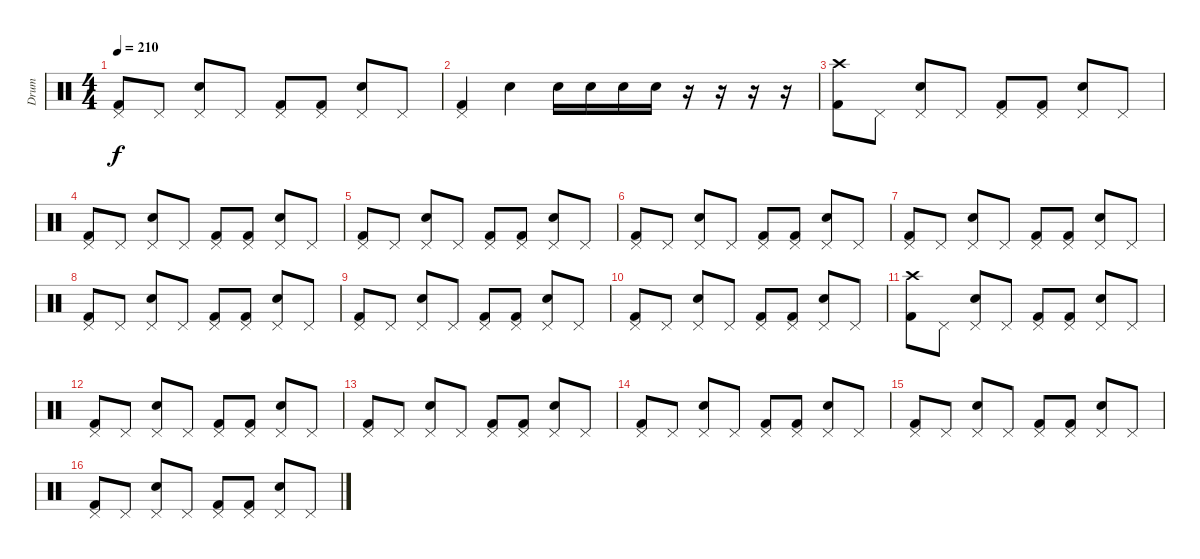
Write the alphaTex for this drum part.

\track ("Drum" "Drum") {instrument percussion}
\staff {score}
\articulation defaults
\ts (4 4)
\tempo 210
\clef neutral
\ks c
("Pedal Hi-Hat (hit)" "Kick (hit) 2").8{dy f} "Pedal Hi-Hat (hit)".8 ("Pedal Hi-Hat (hit)" "Snare (hit) 2").8 "Pedal Hi-Hat (hit)".8 ("Pedal Hi-Hat (hit)" "Kick (hit) 2").8 ("Pedal Hi-Hat (hit)" "Kick (hit) 2").8 ("Pedal Hi-Hat (hit)" "Snare (hit) 2").8 "Pedal Hi-Hat (hit)".8 |
("Pedal Hi-Hat (hit)" "Kick (hit) 2").4 "Snare (hit) 2".4 "Snare (hit) 2".16 "Snare (hit) 2".16 "Snare (hit) 2".16 "Snare (hit) 2".16 r.16 r.16 r.16 r.16 |
("Crash high (hit)" "Kick (hit) 2").8 "Pedal Hi-Hat (hit)".8 ("Pedal Hi-Hat (hit)" "Snare (hit) 2").8 "Pedal Hi-Hat (hit)".8 ("Pedal Hi-Hat (hit)" "Kick (hit) 2").8 ("Pedal Hi-Hat (hit)" "Kick (hit) 2").8 ("Pedal Hi-Hat (hit)" "Snare (hit) 2").8 "Pedal Hi-Hat (hit)".8 |
("Pedal Hi-Hat (hit)" "Kick (hit) 2").8 "Pedal Hi-Hat (hit)".8 ("Pedal Hi-Hat (hit)" "Snare (hit) 2").8 "Pedal Hi-Hat (hit)".8 ("Pedal Hi-Hat (hit)" "Kick (hit) 2").8 ("Pedal Hi-Hat (hit)" "Kick (hit) 2").8 ("Pedal Hi-Hat (hit)" "Snare (hit) 2").8 "Pedal Hi-Hat (hit)".8 |
("Pedal Hi-Hat (hit)" "Kick (hit) 2").8 "Pedal Hi-Hat (hit)".8 ("Pedal Hi-Hat (hit)" "Snare (hit) 2").8 "Pedal Hi-Hat (hit)".8 ("Pedal Hi-Hat (hit)" "Kick (hit) 2").8 ("Pedal Hi-Hat (hit)" "Kick (hit) 2").8 ("Pedal Hi-Hat (hit)" "Snare (hit) 2").8 "Pedal Hi-Hat (hit)".8 |
("Pedal Hi-Hat (hit)" "Kick (hit) 2").8 "Pedal Hi-Hat (hit)".8 ("Pedal Hi-Hat (hit)" "Snare (hit) 2").8 "Pedal Hi-Hat (hit)".8 ("Pedal Hi-Hat (hit)" "Kick (hit) 2").8 ("Pedal Hi-Hat (hit)" "Kick (hit) 2").8 ("Pedal Hi-Hat (hit)" "Snare (hit) 2").8 "Pedal Hi-Hat (hit)".8 |
("Pedal Hi-Hat (hit)" "Kick (hit) 2").8 "Pedal Hi-Hat (hit)".8 ("Pedal Hi-Hat (hit)" "Snare (hit) 2").8 "Pedal Hi-Hat (hit)".8 ("Pedal Hi-Hat (hit)" "Kick (hit) 2").8 ("Pedal Hi-Hat (hit)" "Kick (hit) 2").8 ("Pedal Hi-Hat (hit)" "Snare (hit) 2").8 "Pedal Hi-Hat (hit)".8 |
("Pedal Hi-Hat (hit)" "Kick (hit) 2").8 "Pedal Hi-Hat (hit)".8 ("Pedal Hi-Hat (hit)" "Snare (hit) 2").8 "Pedal Hi-Hat (hit)".8 ("Pedal Hi-Hat (hit)" "Kick (hit) 2").8 ("Pedal Hi-Hat (hit)" "Kick (hit) 2").8 ("Pedal Hi-Hat (hit)" "Snare (hit) 2").8 "Pedal Hi-Hat (hit)".8 |
("Pedal Hi-Hat (hit)" "Kick (hit) 2").8 "Pedal Hi-Hat (hit)".8 ("Pedal Hi-Hat (hit)" "Snare (hit) 2").8 "Pedal Hi-Hat (hit)".8 ("Pedal Hi-Hat (hit)" "Kick (hit) 2").8 ("Pedal Hi-Hat (hit)" "Kick (hit) 2").8 ("Pedal Hi-Hat (hit)" "Snare (hit) 2").8 "Pedal Hi-Hat (hit)".8 |
("Pedal Hi-Hat (hit)" "Kick (hit) 2").8 "Pedal Hi-Hat (hit)".8 ("Pedal Hi-Hat (hit)" "Snare (hit) 2").8 "Pedal Hi-Hat (hit)".8 ("Pedal Hi-Hat (hit)" "Kick (hit) 2").8 ("Pedal Hi-Hat (hit)" "Kick (hit) 2").8 ("Pedal Hi-Hat (hit)" "Snare (hit) 2").8 "Pedal Hi-Hat (hit)".8 |
("Crash high (hit)" "Kick (hit) 2").8 "Pedal Hi-Hat (hit)".8 ("Pedal Hi-Hat (hit)" "Snare (hit) 2").8 "Pedal Hi-Hat (hit)".8 ("Pedal Hi-Hat (hit)" "Kick (hit) 2").8 ("Pedal Hi-Hat (hit)" "Kick (hit) 2").8 ("Pedal Hi-Hat (hit)" "Snare (hit) 2").8 "Pedal Hi-Hat (hit)".8 |
("Pedal Hi-Hat (hit)" "Kick (hit) 2").8 "Pedal Hi-Hat (hit)".8 ("Pedal Hi-Hat (hit)" "Snare (hit) 2").8 "Pedal Hi-Hat (hit)".8 ("Pedal Hi-Hat (hit)" "Kick (hit) 2").8 ("Pedal Hi-Hat (hit)" "Kick (hit) 2").8 ("Pedal Hi-Hat (hit)" "Snare (hit) 2").8 "Pedal Hi-Hat (hit)".8 |
("Pedal Hi-Hat (hit)" "Kick (hit) 2").8 "Pedal Hi-Hat (hit)".8 ("Pedal Hi-Hat (hit)" "Snare (hit) 2").8 "Pedal Hi-Hat (hit)".8 ("Pedal Hi-Hat (hit)" "Kick (hit) 2").8 ("Pedal Hi-Hat (hit)" "Kick (hit) 2").8 ("Pedal Hi-Hat (hit)" "Snare (hit) 2").8 "Pedal Hi-Hat (hit)".8 |
("Pedal Hi-Hat (hit)" "Kick (hit) 2").8 "Pedal Hi-Hat (hit)".8 ("Pedal Hi-Hat (hit)" "Snare (hit) 2").8 "Pedal Hi-Hat (hit)".8 ("Pedal Hi-Hat (hit)" "Kick (hit) 2").8 ("Pedal Hi-Hat (hit)" "Kick (hit) 2").8 ("Pedal Hi-Hat (hit)" "Snare (hit) 2").8 "Pedal Hi-Hat (hit)".8 |
("Pedal Hi-Hat (hit)" "Kick (hit) 2").8 "Pedal Hi-Hat (hit)".8 ("Pedal Hi-Hat (hit)" "Snare (hit) 2").8 "Pedal Hi-Hat (hit)".8 ("Pedal Hi-Hat (hit)" "Kick (hit) 2").8 ("Pedal Hi-Hat (hit)" "Kick (hit) 2").8 ("Pedal Hi-Hat (hit)" "Snare (hit) 2").8 "Pedal Hi-Hat (hit)".8 |
("Pedal Hi-Hat (hit)" "Kick (hit) 2").8 "Pedal Hi-Hat (hit)".8 ("Pedal Hi-Hat (hit)" "Snare (hit) 2").8 "Pedal Hi-Hat (hit)".8 ("Pedal Hi-Hat (hit)" "Kick (hit) 2").8 ("Pedal Hi-Hat (hit)" "Kick (hit) 2").8 ("Pedal Hi-Hat (hit)" "Snare (hit) 2").8 "Pedal Hi-Hat (hit)".8
